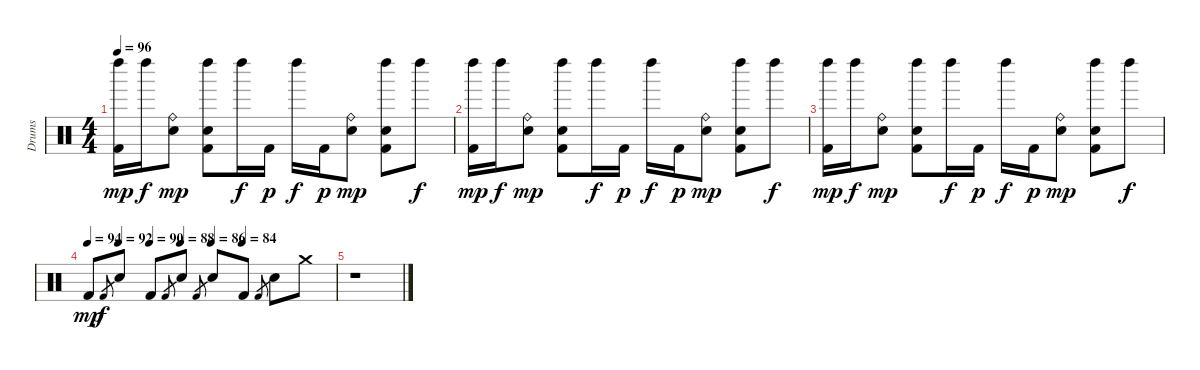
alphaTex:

\track ("Drums" "Drums") {instrument percussion}
\staff {score}
\articulation defaults
\ts (4 4)
\tempo 96
\clef neutral
\ks c
("Left Maraca (hit)" "Kick (hit) 2").16{dy mp} "Left Maraca (hit)".16{dy f} ("Snare (hit) 2" "Ride (bell)").8{dy mp} ("Left Maraca (hit)" "Electric Snare (hit)" "Kick (hit) 2").8 "Left Maraca (hit)".16{dy f} "Kick (hit) 2".16{dy p} "Left Maraca (hit)".16{dy f} "Kick (hit) 2".16{dy p} ("Snare (hit) 2" "Ride (bell)").8{dy mp} ("Left Maraca (hit)" "Electric Snare (hit)" "Kick (hit) 2").8 "Left Maraca (hit)".8{dy f} |
("Left Maraca (hit)" "Kick (hit) 2").16{dy mp} "Left Maraca (hit)".16{dy f} ("Snare (hit) 2" "Ride (bell)").8{dy mp} ("Left Maraca (hit)" "Electric Snare (hit)" "Kick (hit) 2").8 "Left Maraca (hit)".16{dy f} "Kick (hit) 2".16{dy p} "Left Maraca (hit)".16{dy f} "Kick (hit) 2".16{dy p} ("Snare (hit) 2" "Ride (bell)").8{dy mp} ("Left Maraca (hit)" "Electric Snare (hit)" "Kick (hit) 2").8 "Left Maraca (hit)".8{dy f} |
("Left Maraca (hit)" "Kick (hit) 2").16{dy mp} "Left Maraca (hit)".16{dy f} ("Snare (hit) 2" "Ride (bell)").8{dy mp} ("Left Maraca (hit)" "Electric Snare (hit)" "Kick (hit) 2").8 "Left Maraca (hit)".16{dy f} "Kick (hit) 2".16{dy p} "Left Maraca (hit)".16{dy f} "Kick (hit) 2".16{dy p} ("Snare (hit) 2" "Ride (bell)").8{dy mp} ("Left Maraca (hit)" "Electric Snare (hit)" "Kick (hit) 2").8 "Left Maraca (hit)".8{dy f} |
\tempo 94
\tempo (92 0.125)
\tempo (90 0.25)
\tempo (88 0.375)
\tempo (86 0.5)
\tempo (84 0.625)
"Kick (hit) 2".8{dy mp} "Kick (hit) 2".8{gr dy f} "Snare (hit) 2".8 "Kick (hit) 2".8 "Kick (hit) 2".8{gr} "Snare (hit) 2".8 "Kick (hit) 2".8{gr} "Snare (hit) 2".8 "Kick (hit) 2".8 "Kick (hit) 2".8{gr} "Snare (hit) 2".8 "Crash medium (hit)".8 |
r.1
